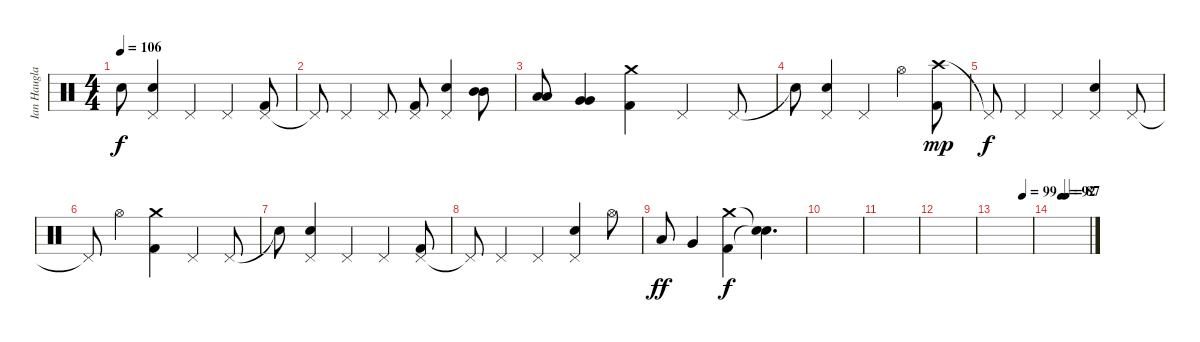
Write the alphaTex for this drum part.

\track ("Ian Haugland - Drums" "Ian Haugla") {instrument percussion}
\staff {score}
\articulation defaults
\ts (4 4)
\tempo 106
\clef neutral
\ks c "Snare (hit)"{t}.8{dy f}
("Pedal Hi-Hat (hit)" "Snare (hit) 2").4 "Pedal Hi-Hat (hit)".4 "Pedal Hi-Hat (hit)".4 ("Pedal Hi-Hat (hit)" "Kick (hit) 2").8 |
"Pedal Hi-Hat (hit)"{t}.8 "Pedal Hi-Hat (hit)".4 "Pedal Hi-Hat (hit)".8 ("Pedal Hi-Hat (hit)" "Kick (hit) 2").8 ("Pedal Hi-Hat (hit)" "Snare (hit) 2").4 ("Mid Tom (hit)" "Mid Tom (hit)").8{bd 120} |
("Low Tom (hit)" "Low Tom (hit)").8{bu 120} ("Very Low Tom (hit)" "Very Low Tom (hit)").4{bd 240} ("Crash medium (hit)" "Kick (hit) 2").4 "Pedal Hi-Hat (hit)".4 "Pedal Hi-Hat (hit)".8 |
"Snare (hit)"{t}.8 ("Pedal Hi-Hat (hit)" "Snare (hit) 2").4 "Pedal Hi-Hat (hit)".4 "Hi-Hat (open)".4 ("Crash high (hit)" "Kick (hit) 2").8{dy mp} |
"Pedal Hi-Hat (hit)"{t}.8{dy f} "Pedal Hi-Hat (hit)".4 "Pedal Hi-Hat (hit)".4 ("Pedal Hi-Hat (hit)" "Snare (hit) 2").4 "Pedal Hi-Hat (hit)".8 |
"Pedal Hi-Hat (hit)"{t}.8 "Hi-Hat (open)".4 ("Crash medium (hit)" "Kick (hit) 2").4 "Pedal Hi-Hat (hit)".4 "Pedal Hi-Hat (hit)".8 |
"Snare (hit)"{t}.8 ("Pedal Hi-Hat (hit)" "Snare (hit) 2").4 "Pedal Hi-Hat (hit)".4 "Pedal Hi-Hat (hit)".4 ("Pedal Hi-Hat (hit)" "Kick (hit) 2").8 |
"Pedal Hi-Hat (hit)"{t}.8 "Pedal Hi-Hat (hit)".4 "Pedal Hi-Hat (hit)".4 ("Pedal Hi-Hat (hit)" "Snare (hit) 2").4 "Hi-Hat (open)".8 |
"Low Tom (hit)".8{dy ff} "Very Low Tom (hit)".4 ("Crash medium (hit)" "Kick (hit) 2").4{dy f} ("Snare (hit)"{t} "Snare (hit)"{t}).4{d} |
|
|
|
\tempo (99 0.75)
|
\tempo (92 0.25)
\tempo (87 0.375)
